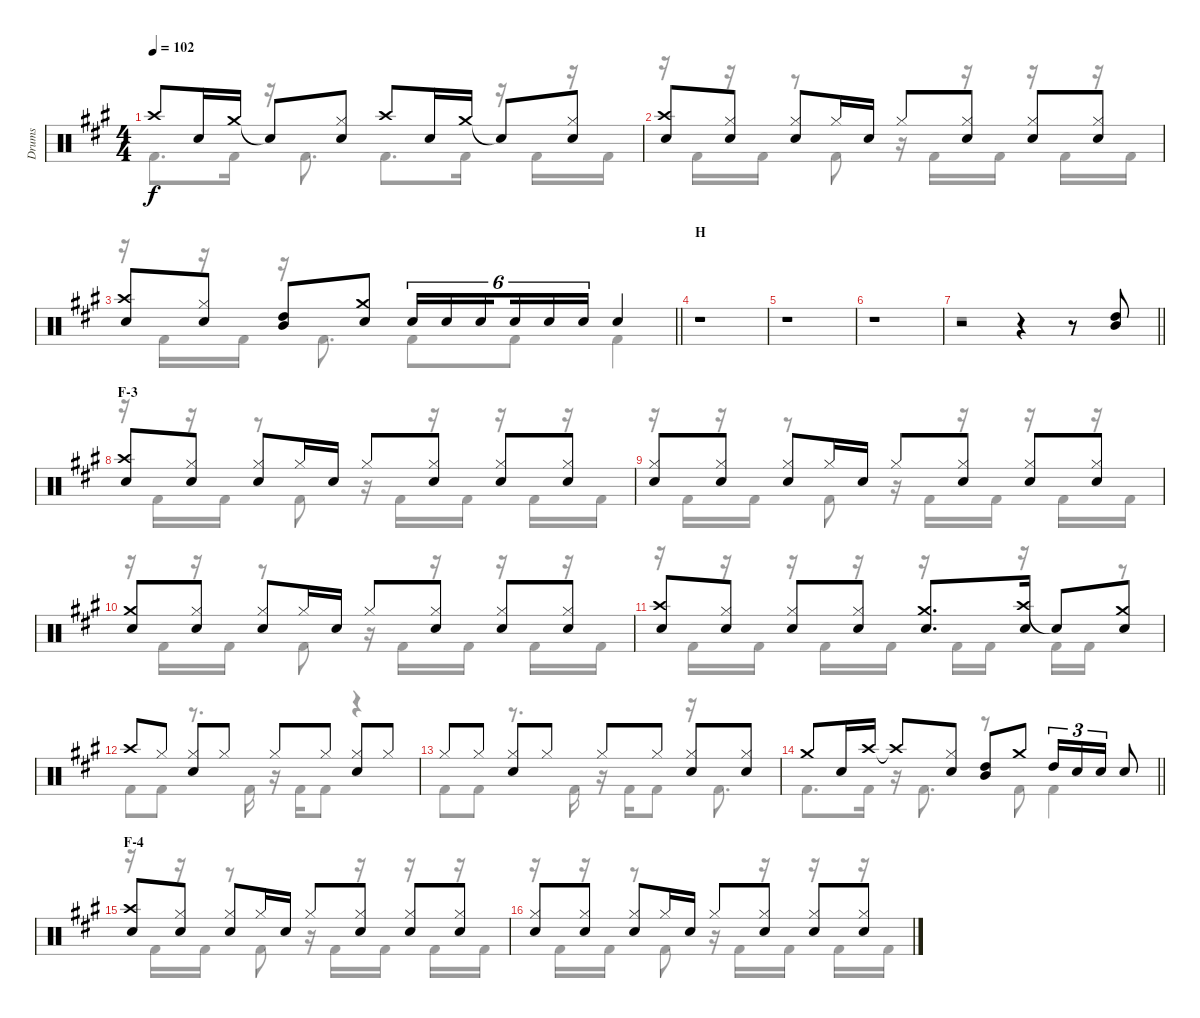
\track ("Drums" "Drums") {instrument percussion}
\staff {score}
\articulation defaults
\voice
\ts (4 4)
\tempo 102
\clef neutral
\ks a "Crash high (hit)".8{dy f} "Snare (hit) 2".16 "Crash medium (hit)".16 "Snare (hit)"{t}.8
("Hi-Hat (closed)" "Snare (hit) 2").8 "Crash high (hit)".8 "Snare (hit) 2".16 "Crash medium (hit)".16 "Snare (hit)"{t}.8 ("Hi-Hat (closed)" "Snare (hit) 2").8 |
("Crash high (hit)" "Snare (hit) 2").8 ("Hi-Hat (closed)" "Snare (hit) 2").8 ("Hi-Hat (closed)" "Snare (hit) 2").8 "Hi-Hat (closed)".16 "Snare (hit) 2".16 "Hi-Hat (closed)".8 ("Hi-Hat (closed)" "Snare (hit) 2").8 ("Hi-Hat (closed)" "Snare (hit) 2").8 ("Hi-Hat (closed)" "Snare (hit) 2").8 |
\barLineRight lightlight
("Crash high (hit)" "Snare (hit) 2").8 ("Hi-Hat (closed)" "Snare (hit) 2").8 ("High Tom (hit)" "Mid Tom (hit)").8 ("Crash medium (hit)" "Snare (hit) 2").8 "Snare (hit) 2".16{tu (6 4)} "Snare (hit) 2".16{tu (6 4)} "Snare (hit) 2".16{tu (6 4) beam splitsecondary} "Snare (hit) 2".16{tu (6 4)} "Snare (hit) 2".16{tu (6 4)} "Snare (hit) 2".16{tu (6 4)} "Snare (hit) 2".4 |
\section ("" "H")
r.1 |
r.1 |
r.1 |
\barLineRight lightlight
r.2 r.4 r.8 ("High Tom (hit)" "Mid Tom (hit)").8 |
\section ("" "F-3")
("Crash high (hit)" "Snare (hit) 2").8 ("Hi-Hat (closed)" "Snare (hit) 2").8 ("Hi-Hat (closed)" "Snare (hit) 2").8 "Hi-Hat (closed)".16 "Snare (hit) 2".16 "Hi-Hat (closed)".8 ("Hi-Hat (closed)" "Snare (hit) 2").8 ("Hi-Hat (closed)" "Snare (hit) 2").8 ("Hi-Hat (closed)" "Snare (hit) 2").8 |
("Hi-Hat (closed)" "Snare (hit) 2").8 ("Hi-Hat (closed)" "Snare (hit) 2").8 ("Hi-Hat (closed)" "Snare (hit) 2").8 "Hi-Hat (closed)".16 "Snare (hit) 2".16 "Hi-Hat (closed)".8 ("Hi-Hat (closed)" "Snare (hit) 2").8 ("Hi-Hat (closed)" "Snare (hit) 2").8 ("Hi-Hat (closed)" "Snare (hit) 2").8 |
("Crash medium (hit)" "Snare (hit) 2").8 ("Hi-Hat (closed)" "Snare (hit) 2").8 ("Hi-Hat (closed)" "Snare (hit) 2").8 "Hi-Hat (closed)".16 "Snare (hit) 2".16 "Hi-Hat (closed)".8 ("Hi-Hat (closed)" "Snare (hit) 2").8 ("Hi-Hat (closed)" "Snare (hit) 2").8 ("Hi-Hat (closed)" "Snare (hit) 2").8 |
("Crash high (hit)" "Snare (hit) 2").8 ("Hi-Hat (closed)" "Snare (hit) 2").8 ("Hi-Hat (closed)" "Snare (hit) 2").8 ("Hi-Hat (closed)" "Snare (hit) 2").8 ("Crash medium (hit)" "Snare (hit) 2").8{d} ("Crash high (hit)" "Snare (hit) 2").16 "Snare (hit)"{t}.8 ("Crash medium (hit)" "Snare (hit) 2").8 |
"Crash high (hit)".8 "Hi-Hat (closed)".8 ("Hi-Hat (closed)" "Snare (hit) 2").8 "Hi-Hat (closed)".8 "Hi-Hat (closed)".8 "Hi-Hat (closed)".8 ("Hi-Hat (closed)" "Snare (hit) 2").8 "Hi-Hat (closed)".8 |
"Hi-Hat (closed)".8 "Hi-Hat (closed)".8 ("Hi-Hat (closed)" "Snare (hit) 2").8 "Hi-Hat (closed)".8 "Hi-Hat (closed)".8 "Hi-Hat (closed)".8 ("Hi-Hat (closed)" "Snare (hit) 2").8 ("Hi-Hat (closed)" "Snare (hit) 2").8 |
\barLineRight lightlight "Crash medium (hit)".8 "Snare (hit) 2".16 "Crash high (hit)".16 "Crash high (hit)"{t}.8
("Hi-Hat (closed)" "Snare (hit) 2").8 ("High Tom (hit)" "Mid Tom (hit)").8 "Crash medium (hit)".8 "High Tom (hit)".16{tu (3 2)} "Snare (hit) 2".16{tu (3 2)} "Snare (hit) 2".16{tu (3 2)} "Snare (hit) 2".8 |
\section ("" "F-4")
("Crash high (hit)" "Snare (hit) 2").8 ("Hi-Hat (closed)" "Snare (hit) 2").8 ("Hi-Hat (closed)" "Snare (hit) 2").8 "Hi-Hat (closed)".16 "Snare (hit) 2".16 "Hi-Hat (closed)".8 ("Hi-Hat (closed)" "Snare (hit) 2").8 ("Hi-Hat (closed)" "Snare (hit) 2").8 ("Hi-Hat (closed)" "Snare (hit) 2").8 |
("Hi-Hat (closed)" "Snare (hit) 2").8 ("Hi-Hat (closed)" "Snare (hit) 2").8 ("Hi-Hat (closed)" "Snare (hit) 2").8 "Hi-Hat (closed)".16 "Snare (hit) 2".16 "Hi-Hat (closed)".8 ("Hi-Hat (closed)" "Snare (hit) 2").8 ("Hi-Hat (closed)" "Snare (hit) 2").8 ("Hi-Hat (closed)" "Snare (hit) 2").8
\voice
\clef neutral
\ottava regular
\simile none
\ks a "Kick (hit) 2".8{d dy f} "Kick (hit) 2".16
r.16 "Kick (hit) 2".8{d} "Kick (hit) 2".8{d} "Kick (hit) 2".16 r.16 "Kick (hit) 2".16 r.16 "Kick (hit) 2".16 |
r.16 "Kick (hit) 2".16 r.16 "Kick (hit) 2".16 r.8 "Kick (hit) 2".8 r.16 "Kick (hit) 2".16 r.16 "Kick (hit) 2".16 r.16 "Kick (hit) 2".16 r.16 "Kick (hit) 2".16 |
\barLineRight lightlight
r.16 "Kick (hit) 2".16 r.16 "Kick (hit) 2".16 r.16 "Kick (hit) 2".8{d} "Kick (hit) 2".8 "Kick (hit) 2".8 "Kick (hit) 2".4 |
r.1 |
r.1 |
r.1 |
\barLineRight lightlight
r.1 |
r.16 "Kick (hit) 2".16 r.16 "Kick (hit) 2".16 r.8 "Kick (hit) 2".8 r.16 "Kick (hit) 2".16 r.16 "Kick (hit) 2".16 r.16 "Kick (hit) 2".16 r.16 "Kick (hit) 2".16 |
r.16 "Kick (hit) 2".16 r.16 "Kick (hit) 2".16 r.8 "Kick (hit) 2".8 r.16 "Kick (hit) 2".16 r.16 "Kick (hit) 2".16 r.16 "Kick (hit) 2".16 r.16 "Kick (hit) 2".16 |
r.16 "Kick (hit) 2".16 r.16 "Kick (hit) 2".16 r.8 "Kick (hit) 2".8 r.16 "Kick (hit) 2".16 r.16 "Kick (hit) 2".16 r.16 "Kick (hit) 2".16 r.16 "Kick (hit) 2".16 |
r.16 "Kick (hit) 2".16 r.16 "Kick (hit) 2".16 r.16 "Kick (hit) 2".16 r.16 "Kick (hit) 2".16 r.16 "Kick (hit) 2".16 "Kick (hit) 2".16 r.16 "Kick (hit) 2".16 "Kick (hit) 2".16 r.8 |
"Kick (hit) 2".8 "Kick (hit) 2".8 r.8{d} "Kick (hit) 2".16 r.16 "Kick (hit) 2".16 "Kick (hit) 2".8 r.4 |
"Kick (hit) 2".8 "Kick (hit) 2".8 r.8{d} "Kick (hit) 2".16 r.16 "Kick (hit) 2".16 "Kick (hit) 2".8 r.16 "Kick (hit) 2".8{d} |
\barLineRight lightlight "Kick (hit) 2".8{d} "Kick (hit) 2".16
r.16 "Kick (hit) 2".8{d} r.8 "Kick (hit) 2".8 "Kick (hit) 2".4 |
r.16 "Kick (hit) 2".16 r.16 "Kick (hit) 2".16 r.8 "Kick (hit) 2".8 r.16 "Kick (hit) 2".16 r.16 "Kick (hit) 2".16 r.16 "Kick (hit) 2".16 r.16 "Kick (hit) 2".16 |
r.16 "Kick (hit) 2".16 r.16 "Kick (hit) 2".16 r.8 "Kick (hit) 2".8 r.16 "Kick (hit) 2".16 r.16 "Kick (hit) 2".16 r.16 "Kick (hit) 2".16 r.16 "Kick (hit) 2".16
